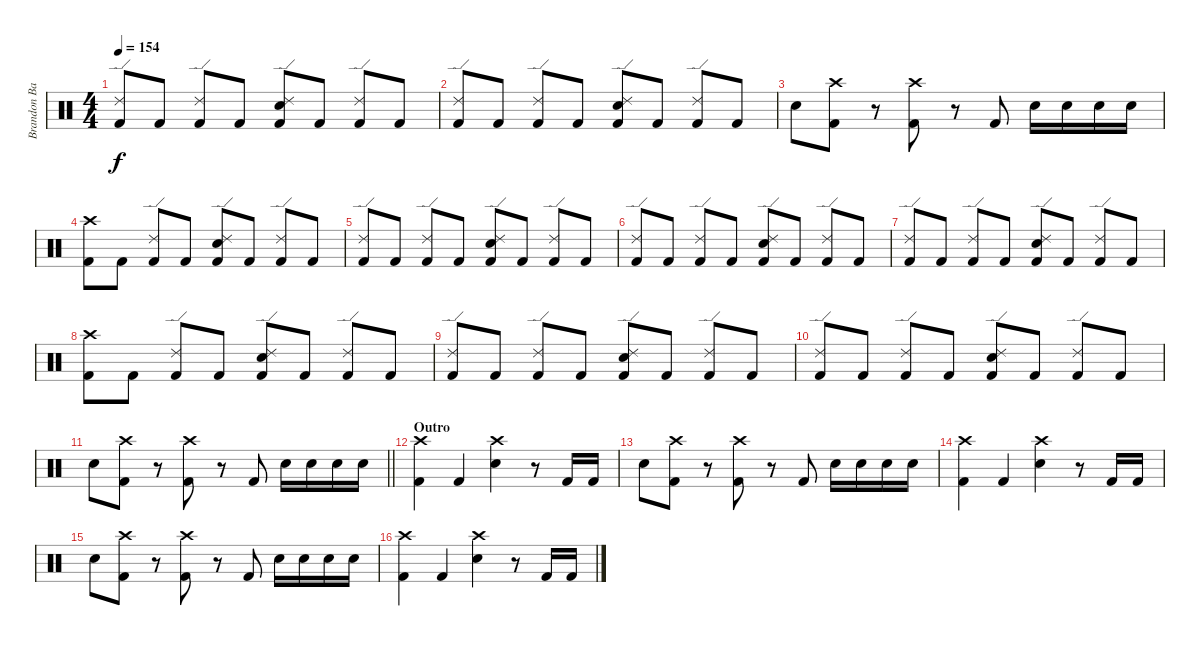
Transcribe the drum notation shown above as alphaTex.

\track ("Brandon Barnes - Drums" "Brandon Ba") {instrument percussion}
\staff {score}
\articulation defaults
\ts (4 4)
\tempo 154
\clef neutral
\ks c
("Kick (hit) 2" "Ride (edge) 2").8{dy f} "Kick (hit) 2".8 ("Kick (hit) 2" "Ride (edge) 2").8 "Kick (hit) 2".8 ("Snare (hit) 2" "Ride (edge) 2" "Kick (hit) 2").8 "Kick (hit) 2".8 ("Kick (hit) 2" "Ride (edge) 2").8 "Kick (hit) 2".8 |
("Kick (hit) 2" "Ride (edge) 2").8 "Kick (hit) 2".8 ("Kick (hit) 2" "Ride (edge) 2").8 "Kick (hit) 2".8 ("Snare (hit) 2" "Ride (edge) 2" "Kick (hit) 2").8 "Kick (hit) 2".8 ("Kick (hit) 2" "Ride (edge) 2").8 "Kick (hit) 2".8 |
"Snare (hit) 2".8 ("Crash high (hit)" "Kick (hit) 2").8 r.8 ("Kick (hit) 2" "Crash high (hit)").8 r.8 "Kick (hit) 2".8 "Snare (hit) 2".16 "Snare (hit) 2".16 "Snare (hit) 2".16 "Snare (hit) 2".16 |
("Kick (hit) 2" "Crash high (hit)").8 "Kick (hit) 2".8 ("Kick (hit) 2" "Ride (edge) 2").8 "Kick (hit) 2".8 ("Snare (hit) 2" "Ride (edge) 2" "Kick (hit) 2").8 "Kick (hit) 2".8 ("Kick (hit) 2" "Ride (edge) 2").8 "Kick (hit) 2".8 |
("Kick (hit) 2" "Ride (edge) 2").8 "Kick (hit) 2".8 ("Kick (hit) 2" "Ride (edge) 2").8 "Kick (hit) 2".8 ("Snare (hit) 2" "Ride (edge) 2" "Kick (hit) 2").8 "Kick (hit) 2".8 ("Kick (hit) 2" "Ride (edge) 2").8 "Kick (hit) 2".8 |
("Kick (hit) 2" "Ride (edge) 2").8 "Kick (hit) 2".8 ("Kick (hit) 2" "Ride (edge) 2").8 "Kick (hit) 2".8 ("Snare (hit) 2" "Ride (edge) 2" "Kick (hit) 2").8 "Kick (hit) 2".8 ("Kick (hit) 2" "Ride (edge) 2").8 "Kick (hit) 2".8 |
("Kick (hit) 2" "Ride (edge) 2").8 "Kick (hit) 2".8 ("Kick (hit) 2" "Ride (edge) 2").8 "Kick (hit) 2".8 ("Snare (hit) 2" "Ride (edge) 2" "Kick (hit) 2").8 "Kick (hit) 2".8 ("Kick (hit) 2" "Ride (edge) 2").8 "Kick (hit) 2".8 |
("Kick (hit) 2" "Crash high (hit)").8 "Kick (hit) 2".8 ("Kick (hit) 2" "Ride (edge) 2").8 "Kick (hit) 2".8 ("Snare (hit) 2" "Ride (edge) 2" "Kick (hit) 2").8 "Kick (hit) 2".8 ("Kick (hit) 2" "Ride (edge) 2").8 "Kick (hit) 2".8 |
("Kick (hit) 2" "Ride (edge) 2").8 "Kick (hit) 2".8 ("Kick (hit) 2" "Ride (edge) 2").8 "Kick (hit) 2".8 ("Snare (hit) 2" "Ride (edge) 2" "Kick (hit) 2").8 "Kick (hit) 2".8 ("Kick (hit) 2" "Ride (edge) 2").8 "Kick (hit) 2".8 |
("Kick (hit) 2" "Ride (edge) 2").8 "Kick (hit) 2".8 ("Kick (hit) 2" "Ride (edge) 2").8 "Kick (hit) 2".8 ("Snare (hit) 2" "Ride (edge) 2" "Kick (hit) 2").8 "Kick (hit) 2".8 ("Kick (hit) 2" "Ride (edge) 2").8 "Kick (hit) 2".8 |
\barLineRight lightlight "Snare (hit) 2".8
("Crash high (hit)" "Kick (hit) 2").8 r.8 ("Kick (hit) 2" "Crash high (hit)").8 r.8 "Kick (hit) 2".8 "Snare (hit) 2".16 "Snare (hit) 2".16 "Snare (hit) 2".16 "Snare (hit) 2".16 |
\section ("" "Outro")
("Crash high (hit)" "Kick (hit) 2").4 "Kick (hit) 2".4 ("Crash high (hit)" "Snare (hit) 2").4 r.8 "Kick (hit) 2".16 "Kick (hit) 2".16 |
"Snare (hit) 2".8 ("Kick (hit) 2" "Crash high (hit)").8 r.8 ("Crash high (hit)" "Kick (hit) 2").8 r.8 "Kick (hit) 2".8 "Snare (hit) 2".16 "Snare (hit) 2".16 "Snare (hit) 2".16 "Snare (hit) 2".16 |
("Crash high (hit)" "Kick (hit) 2").4 "Kick (hit) 2".4 ("Crash high (hit)" "Snare (hit) 2").4 r.8 "Kick (hit) 2".16 "Kick (hit) 2".16 |
"Snare (hit) 2".8 ("Kick (hit) 2" "Crash high (hit)").8 r.8 ("Crash high (hit)" "Kick (hit) 2").8 r.8 "Kick (hit) 2".8 "Snare (hit) 2".16 "Snare (hit) 2".16 "Snare (hit) 2".16 "Snare (hit) 2".16 |
("Crash high (hit)" "Kick (hit) 2").4 "Kick (hit) 2".4 ("Crash high (hit)" "Snare (hit) 2").4 r.8 "Kick (hit) 2".16 "Kick (hit) 2".16
